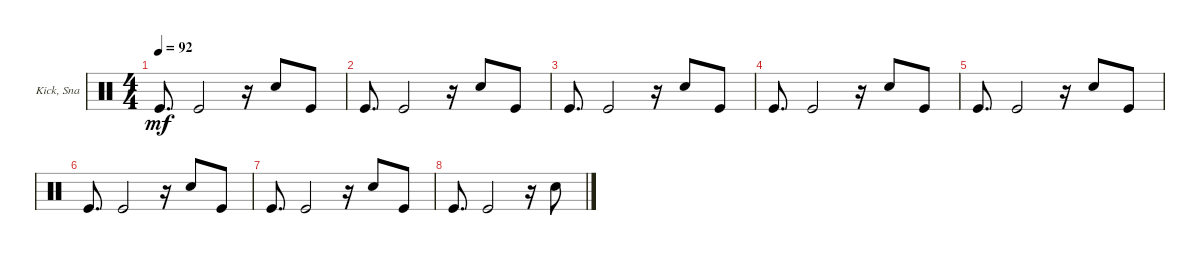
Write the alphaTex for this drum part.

\bracketExtendMode groupsimilarinstruments
\firstSystemTrackNameOrientation horizontal
\otherSystemsTrackNameOrientation horizontal
\track (" Kick, Snare" " Kick, Sna") {instrument percussion}
\staff {score}
\articulation defaults
\ts (4 4)
\tempo 92
\clef neutral
\ks c "Kick (hit)".8{d dy mf} "Kick (hit)".2
r.16 "Snare (hit) 2".8 "Kick (hit)".8 |
"Kick (hit)".8{d} "Kick (hit)".2 r.16 "Snare (hit) 2".8 "Kick (hit)".8 |
"Kick (hit)".8{d} "Kick (hit)".2 r.16 "Snare (hit) 2".8 "Kick (hit)".8 |
"Kick (hit)".8{d} "Kick (hit)".2 r.16 "Snare (hit) 2".8 "Kick (hit)".8 |
"Kick (hit)".8{d} "Kick (hit)".2 r.16 "Snare (hit) 2".8 "Kick (hit)".8 |
"Kick (hit)".8{d} "Kick (hit)".2 r.16 "Snare (hit) 2".8 "Kick (hit)".8 |
"Kick (hit)".8{d} "Kick (hit)".2 r.16 "Snare (hit) 2".8 "Kick (hit)".8 |
"Kick (hit)".8{d} "Kick (hit)".2 r.16 "Snare (hit) 2".8
